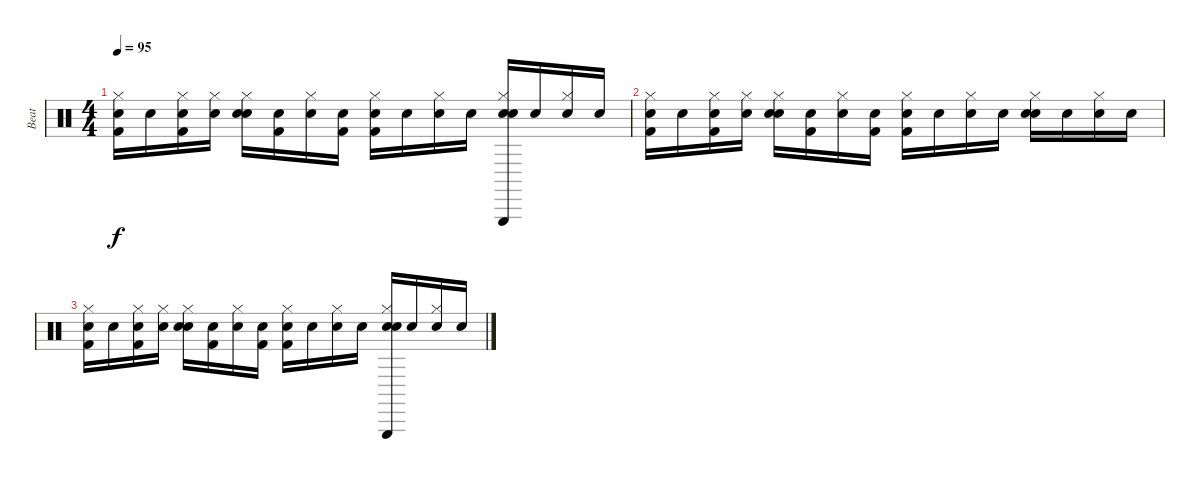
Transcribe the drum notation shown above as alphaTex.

\track ("Beat" "Beat") {instrument percussion}
\staff {score}
\articulation defaults
\ts (4 4)
\tempo 95
\clef neutral
\ks c
("Snare (hit)"{x} "Kick (hit) 2" "Hi-Hat (closed)").16{dy f} "Snare (hit)"{x}.16 ("Snare (hit)"{x} "Kick (hit) 2" "Hi-Hat (closed)").16 ("Snare (hit)"{x} "Hi-Hat (closed)").16 ("Snare (hit)"{x} "Electric Snare (hit)" "Hi-Hat (closed)").16 ("Snare (hit)"{x} "Kick (hit) 2").16 ("Snare (hit)"{x} "Hi-Hat (closed)").16 ("Snare (hit)"{x} "Kick (hit) 2").16 ("Snare (hit)"{x} "Kick (hit) 2" "Hi-Hat (closed)").16 "Snare (hit)"{x}.16 ("Snare (hit)"{x} "Hi-Hat (closed)").16 "Snare (hit)"{x}.16 ("Snare (hit)"{x} "Triangle (hit)" "Electric Snare (hit)" "Hi-Hat (closed)").16 "Snare (hit)"{x}.16 ("Snare (hit)"{x} "Hi-Hat (closed)").16 "Snare (hit)"{x}.16 |
("Snare (hit)"{x} "Kick (hit) 2" "Hi-Hat (closed)").16 "Snare (hit)"{x}.16 ("Snare (hit)"{x} "Kick (hit) 2" "Hi-Hat (closed)").16 ("Snare (hit)"{x} "Hi-Hat (closed)").16 ("Snare (hit)"{x} "Electric Snare (hit)" "Hi-Hat (closed)").16 ("Snare (hit)"{x} "Kick (hit) 2").16 ("Snare (hit)"{x} "Hi-Hat (closed)").16 ("Snare (hit)"{x} "Kick (hit) 2").16 ("Snare (hit)"{x} "Kick (hit) 2" "Hi-Hat (closed)").16 "Snare (hit)"{x}.16 ("Snare (hit)"{x} "Hi-Hat (closed)").16 "Snare (hit)"{x}.16 ("Snare (hit)"{x} "Electric Snare (hit)" "Hi-Hat (closed)").16 "Snare (hit)"{x}.16 ("Snare (hit)"{x} "Hi-Hat (closed)").16 "Snare (hit)"{x}.16 |
("Snare (hit)"{x} "Kick (hit) 2" "Hi-Hat (closed)").16 "Snare (hit)"{x}.16 ("Snare (hit)"{x} "Kick (hit) 2" "Hi-Hat (closed)").16 ("Snare (hit)"{x} "Hi-Hat (closed)").16 ("Snare (hit)"{x} "Electric Snare (hit)" "Hi-Hat (closed)").16 ("Snare (hit)"{x} "Kick (hit) 2").16 ("Snare (hit)"{x} "Hi-Hat (closed)").16 ("Snare (hit)"{x} "Kick (hit) 2").16 ("Snare (hit)"{x} "Kick (hit) 2" "Hi-Hat (closed)").16 "Snare (hit)"{x}.16 ("Snare (hit)"{x} "Hi-Hat (closed)").16 "Snare (hit)"{x}.16 ("Snare (hit)"{x} "Triangle (hit)" "Electric Snare (hit)" "Hi-Hat (closed)").16 "Snare (hit)"{x}.16 ("Snare (hit)"{x} "Hi-Hat (closed)").16 "Snare (hit)"{x}.16
